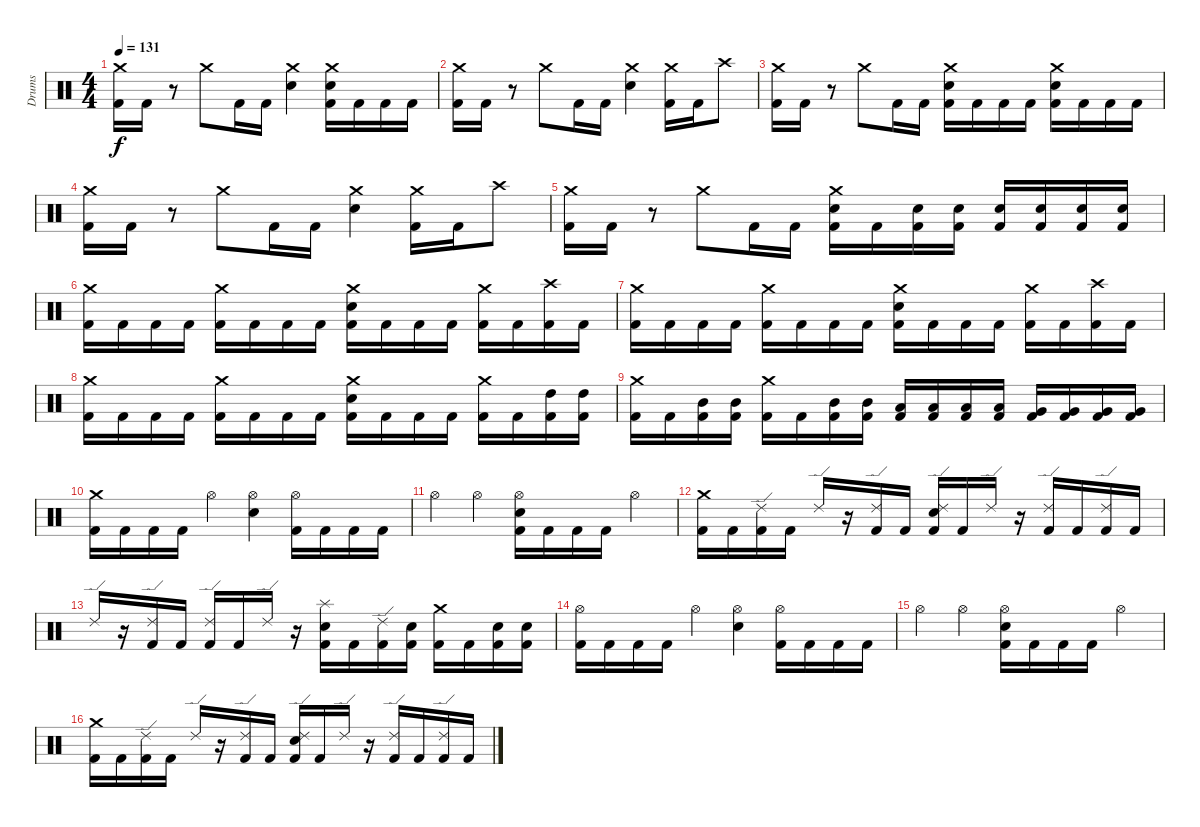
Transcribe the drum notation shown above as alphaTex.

\track ("Drums" "Drums") {instrument percussion}
\staff {score}
\articulation defaults
\ts (4 4)
\tempo 131
\clef neutral
\ks c
("Crash medium (hit)" "Kick (hit) 2").16{dy f} "Kick (hit) 2".16 r.8 "Crash medium (hit)".8 "Kick (hit) 2".16 "Kick (hit) 2".16 ("Crash medium (hit)" "Electric Snare (hit)").4 ("Crash medium (hit)" "Electric Snare (hit)" "Kick (hit) 2").16 "Kick (hit) 2".16 "Kick (hit) 2".16 "Kick (hit) 2".16 |
("Crash medium (hit)" "Kick (hit) 2").16 "Kick (hit) 2".16 r.8 "Crash medium (hit)".8 "Kick (hit) 2".16 "Kick (hit) 2".16 ("Crash medium (hit)" "Electric Snare (hit)").4 ("Crash medium (hit)" "Kick (hit) 2").16 "Kick (hit) 2".16 "Crash high (hit)".8 |
("Crash medium (hit)" "Kick (hit) 2").16 "Kick (hit) 2".16 r.8 "Crash medium (hit)".8 "Kick (hit) 2".16 "Kick (hit) 2".16 ("Crash medium (hit)" "Electric Snare (hit)" "Kick (hit) 2").16 "Kick (hit) 2".16 "Kick (hit) 2".16 "Kick (hit) 2".16 ("Crash medium (hit)" "Electric Snare (hit)" "Kick (hit) 2").16 "Kick (hit) 2".16 "Kick (hit) 2".16 "Kick (hit) 2".16 |
("Crash medium (hit)" "Kick (hit) 2").16 "Kick (hit) 2".16 r.8 "Crash medium (hit)".8 "Kick (hit) 2".16 "Kick (hit) 2".16 ("Crash medium (hit)" "Electric Snare (hit)").4 ("Crash medium (hit)" "Kick (hit) 2").16 "Kick (hit) 2".16 "Crash high (hit)".8 |
("Crash medium (hit)" "Kick (hit) 2").16 "Kick (hit) 2".16 r.8 "Crash medium (hit)".8 "Kick (hit) 2".16 "Kick (hit) 2".16 ("Crash medium (hit)" "Electric Snare (hit)" "Kick (hit) 2").16 "Kick (hit) 2".16 ("Electric Snare (hit)" "Kick (hit) 2").16 ("Electric Snare (hit)" "Kick (hit) 2").16 ("Electric Snare (hit)" "Kick (hit) 2").16 ("Electric Snare (hit)" "Kick (hit) 2").16 ("Electric Snare (hit)" "Kick (hit) 2").16 ("Electric Snare (hit)" "Kick (hit) 2").16 |
("Crash medium (hit)" "Kick (hit) 2").16 "Kick (hit) 2".16 "Kick (hit) 2".16 "Kick (hit) 2".16 ("Crash medium (hit)" "Kick (hit) 2").16 "Kick (hit) 2".16 "Kick (hit) 2".16 "Kick (hit) 2".16 ("Crash medium (hit)" "Electric Snare (hit)" "Kick (hit) 2").16 "Kick (hit) 2".16 "Kick (hit) 2".16 "Kick (hit) 2".16 ("Crash medium (hit)" "Kick (hit) 2").16 "Kick (hit) 2".16 ("Crash high (hit)" "Kick (hit) 2").16 "Kick (hit) 2".16 |
("Crash medium (hit)" "Kick (hit) 2").16 "Kick (hit) 2".16 "Kick (hit) 2".16 "Kick (hit) 2".16 ("Crash medium (hit)" "Kick (hit) 2").16 "Kick (hit) 2".16 "Kick (hit) 2".16 "Kick (hit) 2".16 ("Crash medium (hit)" "Electric Snare (hit)" "Kick (hit) 2").16 "Kick (hit) 2".16 "Kick (hit) 2".16 "Kick (hit) 2".16 ("Crash medium (hit)" "Kick (hit) 2").16 "Kick (hit) 2".16 ("Crash high (hit)" "Kick (hit) 2").16 "Kick (hit) 2".16 |
("Crash medium (hit)" "Kick (hit) 2").16 "Kick (hit) 2".16 "Kick (hit) 2".16 "Kick (hit) 2".16 ("Crash medium (hit)" "Kick (hit) 2").16 "Kick (hit) 2".16 "Kick (hit) 2".16 "Kick (hit) 2".16 ("Crash medium (hit)" "Electric Snare (hit)" "Kick (hit) 2").16 "Kick (hit) 2".16 "Kick (hit) 2".16 "Kick (hit) 2".16 ("Crash medium (hit)" "Kick (hit) 2").16 "Kick (hit) 2".16 ("High Tom (hit)" "Kick (hit) 2").16 ("High Tom (hit)" "Kick (hit) 2").16 |
("Crash medium (hit)" "Kick (hit) 2").16 "Kick (hit) 2".16 ("Mid Tom (hit)" "Kick (hit) 2").16 ("Mid Tom (hit)" "Kick (hit) 2").16 ("Crash medium (hit)" "Kick (hit) 2").16 "Kick (hit) 2".16 ("Mid Tom (hit)" "Kick (hit) 2").16 ("Mid Tom (hit)" "Kick (hit) 2").16 ("Low Tom (hit)" "Kick (hit) 2").16 ("Low Tom (hit)" "Kick (hit) 2").16 ("Low Tom (hit)" "Kick (hit) 2").16 ("Low Tom (hit)" "Kick (hit) 2").16 ("Very Low Tom (hit)" "Kick (hit) 2").16 ("Very Low Tom (hit)" "Kick (hit) 2").16 ("Very Low Tom (hit)" "Kick (hit) 2").16 ("Very Low Tom (hit)" "Kick (hit) 2").16 |
("Crash medium (hit)" "Kick (hit) 2").16 "Kick (hit) 2".16 "Kick (hit) 2".16 "Kick (hit) 2".16 "Hi-Hat (open)".4 ("Hi-Hat (open)" "Electric Snare (hit)").4 ("Hi-Hat (open)" "Kick (hit) 2").16 "Kick (hit) 2".16 "Kick (hit) 2".16 "Kick (hit) 2".16 |
"Hi-Hat (open)".4 "Hi-Hat (open)".4 ("Hi-Hat (open)" "Electric Snare (hit)" "Kick (hit) 2").16 "Kick (hit) 2".16 "Kick (hit) 2".16 "Kick (hit) 2".16 "Hi-Hat (open)".4 |
("Crash medium (hit)" "Kick (hit) 2").16 "Kick (hit) 2".16 ("Ride (edge) 2" "Kick (hit) 2").16 "Kick (hit) 2".16 "Ride (edge) 2".16 r.16 ("Ride (edge) 2" "Kick (hit) 2").16 "Kick (hit) 2".16 ("Ride (edge) 2" "Electric Snare (hit)" "Kick (hit) 2").16 "Kick (hit) 2".16 "Ride (edge) 2".16 r.16 ("Ride (edge) 2" "Kick (hit) 2").16 "Kick (hit) 2".16 ("Ride (edge) 2" "Kick (hit) 2").16 "Kick (hit) 2".16 |
"Ride (edge) 2".16 r.16 ("Ride (edge) 2" "Kick (hit) 2").16 "Kick (hit) 2".16 ("Ride (edge) 2" "Kick (hit) 2").16 "Kick (hit) 2".16 "Ride (edge) 2".16 r.16 ("Splash (hit)" "Electric Snare (hit)" "Kick (hit) 2").16 "Kick (hit) 2".16 ("Ride (edge) 2" "Kick (hit) 2").16 ("Electric Snare (hit)" "Kick (hit) 2").16 ("Crash medium (hit)" "Kick (hit) 2").16 "Kick (hit) 2".16 ("Electric Snare (hit)" "Kick (hit) 2").16 ("Electric Snare (hit)" "Kick (hit) 2").16 |
("Hi-Hat (open)" "Kick (hit) 2").16 "Kick (hit) 2".16 "Kick (hit) 2".16 "Kick (hit) 2".16 "Hi-Hat (open)".4 ("Hi-Hat (open)" "Electric Snare (hit)").4 ("Hi-Hat (open)" "Kick (hit) 2").16 "Kick (hit) 2".16 "Kick (hit) 2".16 "Kick (hit) 2".16 |
"Hi-Hat (open)".4 "Hi-Hat (open)".4 ("Hi-Hat (open)" "Electric Snare (hit)" "Kick (hit) 2").16 "Kick (hit) 2".16 "Kick (hit) 2".16 "Kick (hit) 2".16 "Hi-Hat (open)".4 |
("Crash medium (hit)" "Kick (hit) 2").16 "Kick (hit) 2".16 ("Ride (edge) 2" "Kick (hit) 2").16 "Kick (hit) 2".16 "Ride (edge) 2".16 r.16 ("Ride (edge) 2" "Kick (hit) 2").16 "Kick (hit) 2".16 ("Ride (edge) 2" "Electric Snare (hit)" "Kick (hit) 2").16 "Kick (hit) 2".16 "Ride (edge) 2".16 r.16 ("Ride (edge) 2" "Kick (hit) 2").16 "Kick (hit) 2".16 ("Ride (edge) 2" "Kick (hit) 2").16 "Kick (hit) 2".16
